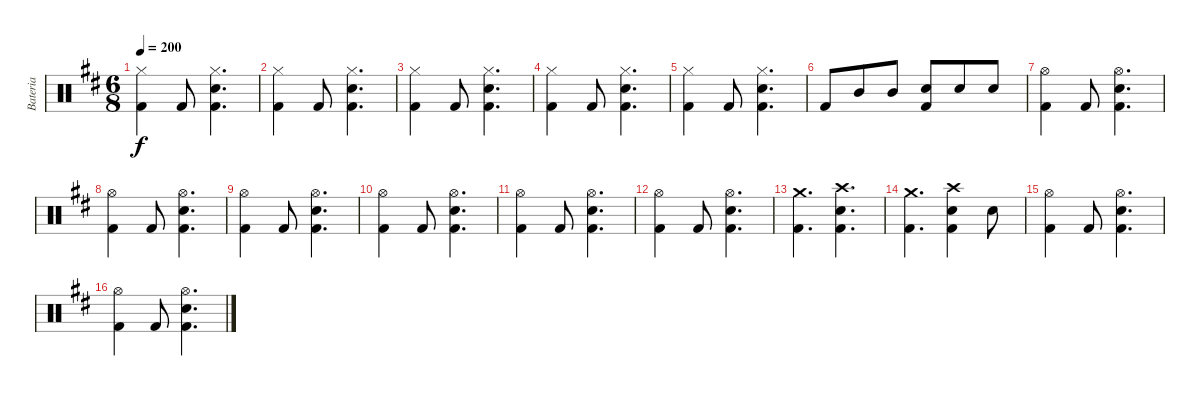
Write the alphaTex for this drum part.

\track ("Bateria" "Bateria") {instrument percussion}
\staff {score}
\articulation defaults
\ts (6 8)
\tempo 200
\clef neutral
\ks bminor
("Hi-Hat (closed)" "Kick (hit) 2").4{dy f} "Kick (hit) 2".8 ("Hi-Hat (closed)" "Electric Snare (hit)" "Kick (hit) 2").4{d} |
("Hi-Hat (closed)" "Kick (hit) 2").4 "Kick (hit) 2".8 ("Hi-Hat (closed)" "Electric Snare (hit)" "Kick (hit) 2").4{d} |
("Hi-Hat (closed)" "Kick (hit) 2").4 "Kick (hit) 2".8 ("Hi-Hat (closed)" "Electric Snare (hit)" "Kick (hit) 2").4{d} |
("Hi-Hat (closed)" "Kick (hit) 2").4 "Kick (hit) 2".8 ("Hi-Hat (closed)" "Electric Snare (hit)" "Kick (hit) 2").4{d} |
("Hi-Hat (closed)" "Kick (hit) 2").4 "Kick (hit) 2".8 ("Hi-Hat (closed)" "Electric Snare (hit)" "Kick (hit) 2").4{d} |
"Kick (hit) 2".8 "Mid Tom (hit)".8 "Mid Tom (hit)".8 ("Electric Snare (hit)" "Kick (hit) 2").8 "Electric Snare (hit)".8 "Electric Snare (hit)".8 |
("Hi-Hat (open)" "Kick (hit) 2").4 "Kick (hit) 2".8 ("Hi-Hat (open)" "Electric Snare (hit)" "Kick (hit) 2").4{d} |
("Hi-Hat (open)" "Kick (hit) 2").4 "Kick (hit) 2".8 ("Hi-Hat (open)" "Electric Snare (hit)" "Kick (hit) 2").4{d} |
("Hi-Hat (open)" "Kick (hit) 2").4 "Kick (hit) 2".8 ("Hi-Hat (open)" "Electric Snare (hit)" "Kick (hit) 2").4{d} |
("Hi-Hat (open)" "Kick (hit) 2").4 "Kick (hit) 2".8 ("Hi-Hat (open)" "Electric Snare (hit)" "Kick (hit) 2").4{d} |
("Hi-Hat (open)" "Kick (hit) 2").4 "Kick (hit) 2".8 ("Hi-Hat (open)" "Electric Snare (hit)" "Kick (hit) 2").4{d} |
("Hi-Hat (open)" "Kick (hit) 2").4 "Kick (hit) 2".8 ("Hi-Hat (open)" "Electric Snare (hit)" "Kick (hit) 2").4{d} |
("Crash medium (hit)" "Kick (hit) 2").4{d} ("Crash high (hit)" "Electric Snare (hit)" "Kick (hit) 2").4{d} |
("Crash medium (hit)" "Kick (hit) 2").4{d} ("Crash high (hit)" "Electric Snare (hit)" "Kick (hit) 2").4 "Electric Snare (hit)".8 |
("Hi-Hat (open)" "Kick (hit) 2").4 "Kick (hit) 2".8 ("Hi-Hat (open)" "Electric Snare (hit)" "Kick (hit) 2").4{d} |
("Hi-Hat (open)" "Kick (hit) 2").4 "Kick (hit) 2".8 ("Hi-Hat (open)" "Electric Snare (hit)" "Kick (hit) 2").4{d}
